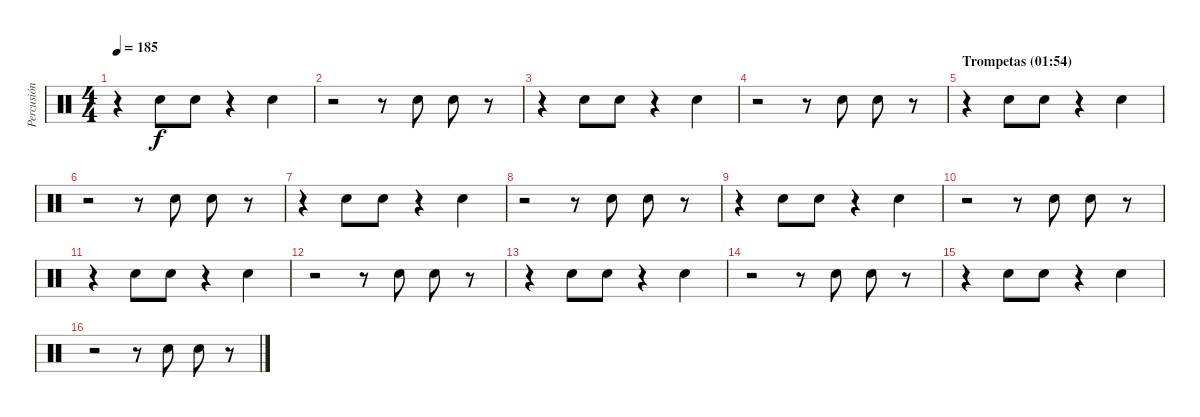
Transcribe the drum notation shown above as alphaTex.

\track ("Percusión" "Percusión") {instrument percussion}
\staff {score}
\articulation defaults
\ts (4 4)
\tempo 185
\clef neutral
\ks c
r.4{dy f} "Hand Clap (hit)".8 "Hand Clap (hit)".8 r.4 "Hand Clap (hit)".4 |
r.2 r.8 "Hand Clap (hit)".8 "Hand Clap (hit)".8 r.8 |
r.4 "Hand Clap (hit)".8 "Hand Clap (hit)".8 r.4 "Hand Clap (hit)".4 |
r.2 r.8 "Hand Clap (hit)".8 "Hand Clap (hit)".8 r.8 |
\section ("" "Trompetas (01:54)")
r.4 "Hand Clap (hit)".8 "Hand Clap (hit)".8 r.4 "Hand Clap (hit)".4 |
r.2 r.8 "Hand Clap (hit)".8 "Hand Clap (hit)".8 r.8 |
r.4 "Hand Clap (hit)".8 "Hand Clap (hit)".8 r.4 "Hand Clap (hit)".4 |
r.2 r.8 "Hand Clap (hit)".8 "Hand Clap (hit)".8 r.8 |
r.4 "Hand Clap (hit)".8 "Hand Clap (hit)".8 r.4 "Hand Clap (hit)".4 |
r.2 r.8 "Hand Clap (hit)".8 "Hand Clap (hit)".8 r.8 |
r.4 "Hand Clap (hit)".8 "Hand Clap (hit)".8 r.4 "Hand Clap (hit)".4 |
r.2 r.8 "Hand Clap (hit)".8 "Hand Clap (hit)".8 r.8 |
r.4 "Hand Clap (hit)".8 "Hand Clap (hit)".8 r.4 "Hand Clap (hit)".4 |
r.2 r.8 "Hand Clap (hit)".8 "Hand Clap (hit)".8 r.8 |
r.4 "Hand Clap (hit)".8 "Hand Clap (hit)".8 r.4 "Hand Clap (hit)".4 |
r.2 r.8 "Hand Clap (hit)".8 "Hand Clap (hit)".8 r.8
